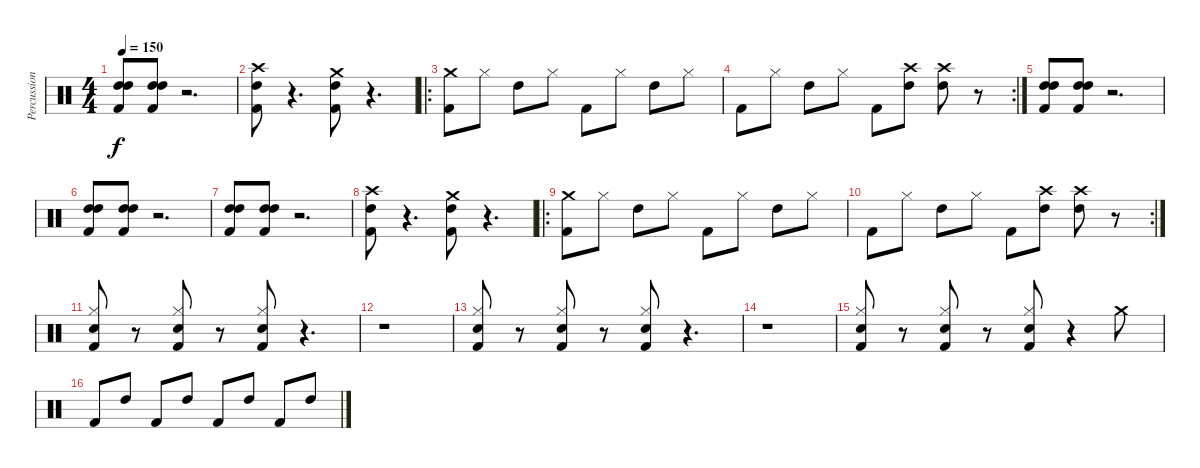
\track ("Percussions" "Percussion") {instrument percussion}
\staff {score}
\articulation defaults
\ts (4 4)
\tempo 150
\clef neutral
\ks c
("Kick (hit) 2" "High Tom (hit)" "High Tom (hit)").8{dy f} ("Kick (hit) 2" "High Tom (hit)" "High Tom (hit)").8 r.2{d} |
("Kick (hit) 2" "High Tom (hit)" "Crash high (hit)").8 r.4{d} ("Kick (hit) 2" "High Tom (hit)" "Crash medium (hit)").8 r.4{d} |
\ro
("Kick (hit) 2" "Crash medium (hit)").8 "Hi-Hat (closed)".8 "High Tom (hit)".8 "Hi-Hat (closed)".8 "Kick (hit) 2".8 "Hi-Hat (closed)".8 "High Tom (hit)".8 "Hi-Hat (closed)".8 |
\rc 2 "Kick (hit) 2".8 "Hi-Hat (closed)".8 "High Tom (hit)".8 "Hi-Hat (closed)".8 "Kick (hit) 2".8
("Crash high (hit)" "High Tom (hit)").8 ("Crash high (hit)" "High Tom (hit)").8 r.8 |
("Kick (hit) 2" "High Tom (hit)" "High Tom (hit)").8 ("Kick (hit) 2" "High Tom (hit)" "High Tom (hit)").8 r.2{d} |
("Kick (hit) 2" "High Tom (hit)" "High Tom (hit)").8 ("Kick (hit) 2" "High Tom (hit)" "High Tom (hit)").8 r.2{d} |
("Kick (hit) 2" "High Tom (hit)" "High Tom (hit)").8 ("Kick (hit) 2" "High Tom (hit)" "High Tom (hit)").8 r.2{d} |
("Kick (hit) 2" "High Tom (hit)" "Crash high (hit)").8 r.4{d} ("Kick (hit) 2" "High Tom (hit)" "Crash medium (hit)").8 r.4{d} |
\ro
("Kick (hit) 2" "Crash medium (hit)").8 "Hi-Hat (closed)".8 "High Tom (hit)".8 "Hi-Hat (closed)".8 "Kick (hit) 2".8 "Hi-Hat (closed)".8 "High Tom (hit)".8 "Hi-Hat (closed)".8 |
\rc 2 "Kick (hit) 2".8 "Hi-Hat (closed)".8 "High Tom (hit)".8 "Hi-Hat (closed)".8 "Kick (hit) 2".8
("Crash high (hit)" "High Tom (hit)").8 ("Crash high (hit)" "High Tom (hit)").8 r.8 |
("Kick (hit) 2" "Snare (hit) 2" "Hi-Hat (closed)").8 r.8 ("Kick (hit) 2" "Snare (hit) 2" "Hi-Hat (closed)").8 r.8 ("Kick (hit) 2" "Snare (hit) 2" "Hi-Hat (closed)").8 r.4{d} |
r.1 |
("Kick (hit) 2" "Snare (hit) 2" "Hi-Hat (closed)").8 r.8 ("Kick (hit) 2" "Snare (hit) 2" "Hi-Hat (closed)").8 r.8 ("Kick (hit) 2" "Snare (hit) 2" "Hi-Hat (closed)").8 r.4{d} |
r.1 |
("Kick (hit) 2" "Snare (hit) 2" "Hi-Hat (closed)").8 r.8 ("Kick (hit) 2" "Snare (hit) 2" "Hi-Hat (closed)").8 r.8 ("Kick (hit) 2" "Snare (hit) 2" "Hi-Hat (closed)").8 r.4 "Crash medium (hit)".8 |
"Kick (hit) 2".8 "High Tom (hit)".8 "Kick (hit) 2".8 "High Tom (hit)".8 "Kick (hit) 2".8 "High Tom (hit)".8 "Kick (hit) 2".8 "High Tom (hit)".8
